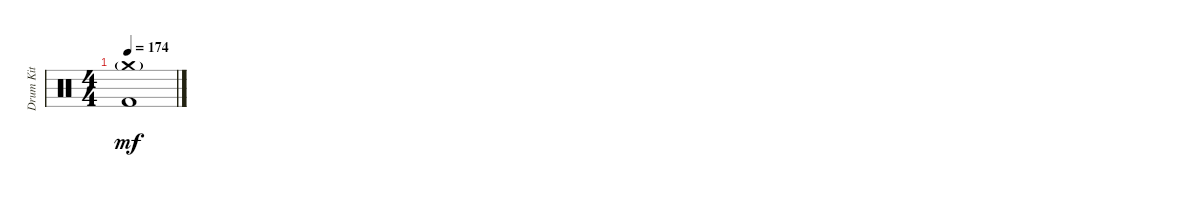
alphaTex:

\track ("Drum Kit" "Drum Kit") {instrument percussion}
\staff {score}
\articulation defaults
\ts (4 4)
\tempo 174
\clef neutral
\ks c
("Crash medium (hit)"{g} "Kick (hit) 2").1{dy mf}
